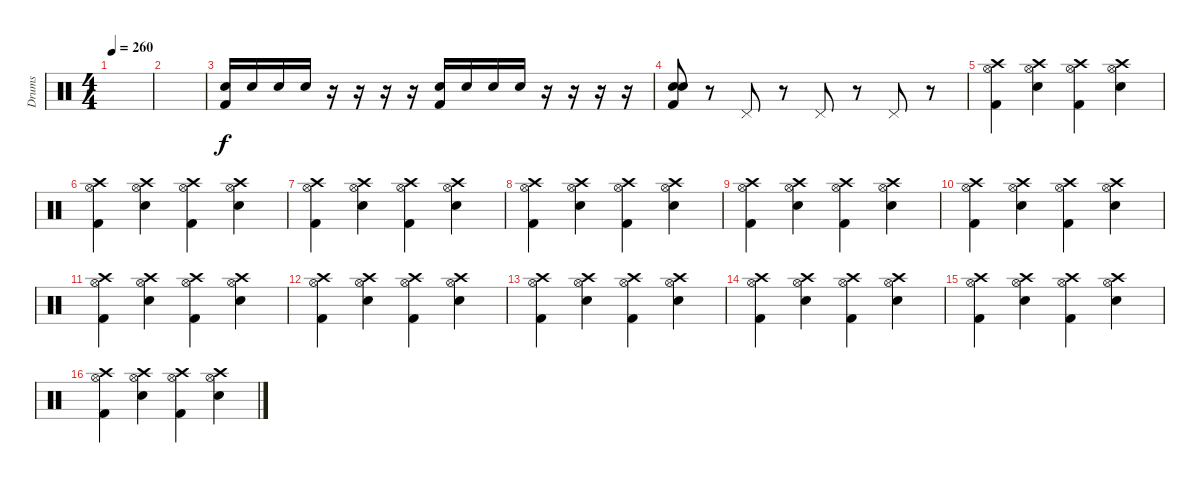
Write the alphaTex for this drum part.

\track ("Drums" "Drums") {instrument percussion}
\staff {score}
\articulation defaults
\ts (4 4)
\tempo 260
\clef neutral
\ks c
|
|
("Electric Snare (hit)" "Kick (hit) 2").16 "Electric Snare (hit)".16 "Electric Snare (hit)".16 "Electric Snare (hit)".16 r.16 r.16 r.16 r.16 ("Electric Snare (hit)" "Kick (hit) 2").16 "Electric Snare (hit)".16 "Electric Snare (hit)".16 "Electric Snare (hit)".16 r.16 r.16 r.16 r.16 |
("Electric Snare (hit)" "Kick (hit) 2" "Electric Snare (hit)").8 r.8 "Pedal Hi-Hat (hit)".8 r.8 "Pedal Hi-Hat (hit)".8 r.8 "Pedal Hi-Hat (hit)".8 r.8 |
("Crash high (hit)" "Kick (hit) 2" "Hi-Hat (open)").4 ("Crash high (hit)" "Electric Snare (hit)" "Hi-Hat (open)").4 ("Crash high (hit)" "Kick (hit) 2" "Hi-Hat (open)").4 ("Crash high (hit)" "Electric Snare (hit)" "Hi-Hat (open)").4 |
("Crash high (hit)" "Kick (hit) 2" "Hi-Hat (open)").4 ("Crash high (hit)" "Electric Snare (hit)" "Hi-Hat (open)").4 ("Crash high (hit)" "Kick (hit) 2" "Hi-Hat (open)").4 ("Crash high (hit)" "Electric Snare (hit)" "Hi-Hat (open)").4 |
("Crash high (hit)" "Kick (hit) 2" "Hi-Hat (open)").4 ("Crash high (hit)" "Electric Snare (hit)" "Hi-Hat (open)").4 ("Crash high (hit)" "Kick (hit) 2" "Hi-Hat (open)").4 ("Crash high (hit)" "Electric Snare (hit)" "Hi-Hat (open)").4 |
("Crash high (hit)" "Kick (hit) 2" "Hi-Hat (open)").4 ("Crash high (hit)" "Electric Snare (hit)" "Hi-Hat (open)").4 ("Crash high (hit)" "Kick (hit) 2" "Hi-Hat (open)").4 ("Crash high (hit)" "Electric Snare (hit)" "Hi-Hat (open)").4 |
("Crash high (hit)" "Kick (hit) 2" "Hi-Hat (open)").4 ("Crash high (hit)" "Electric Snare (hit)" "Hi-Hat (open)").4 ("Crash high (hit)" "Kick (hit) 2" "Hi-Hat (open)").4 ("Crash high (hit)" "Electric Snare (hit)" "Hi-Hat (open)").4 |
("Crash high (hit)" "Kick (hit) 2" "Hi-Hat (open)").4 ("Crash high (hit)" "Electric Snare (hit)" "Hi-Hat (open)").4 ("Crash high (hit)" "Kick (hit) 2" "Hi-Hat (open)").4 ("Crash high (hit)" "Electric Snare (hit)" "Hi-Hat (open)").4 |
("Crash high (hit)" "Kick (hit) 2" "Hi-Hat (open)").4 ("Crash high (hit)" "Electric Snare (hit)" "Hi-Hat (open)").4 ("Crash high (hit)" "Kick (hit) 2" "Hi-Hat (open)").4 ("Crash high (hit)" "Electric Snare (hit)" "Hi-Hat (open)").4 |
("Crash high (hit)" "Kick (hit) 2" "Hi-Hat (open)").4 ("Crash high (hit)" "Electric Snare (hit)" "Hi-Hat (open)").4 ("Crash high (hit)" "Kick (hit) 2" "Hi-Hat (open)").4 ("Crash high (hit)" "Electric Snare (hit)" "Hi-Hat (open)").4 |
("Crash high (hit)" "Kick (hit) 2" "Hi-Hat (open)").4 ("Crash high (hit)" "Electric Snare (hit)" "Hi-Hat (open)").4 ("Crash high (hit)" "Kick (hit) 2" "Hi-Hat (open)").4 ("Crash high (hit)" "Electric Snare (hit)" "Hi-Hat (open)").4 |
("Crash high (hit)" "Kick (hit) 2" "Hi-Hat (open)").4 ("Crash high (hit)" "Electric Snare (hit)" "Hi-Hat (open)").4 ("Crash high (hit)" "Kick (hit) 2" "Hi-Hat (open)").4 ("Crash high (hit)" "Electric Snare (hit)" "Hi-Hat (open)").4 |
("Crash high (hit)" "Kick (hit) 2" "Hi-Hat (open)").4 ("Crash high (hit)" "Electric Snare (hit)" "Hi-Hat (open)").4 ("Crash high (hit)" "Kick (hit) 2" "Hi-Hat (open)").4 ("Crash high (hit)" "Electric Snare (hit)" "Hi-Hat (open)").4 |
("Crash high (hit)" "Kick (hit) 2" "Hi-Hat (open)").4 ("Crash high (hit)" "Electric Snare (hit)" "Hi-Hat (open)").4 ("Crash high (hit)" "Kick (hit) 2" "Hi-Hat (open)").4 ("Crash high (hit)" "Electric Snare (hit)" "Hi-Hat (open)").4
